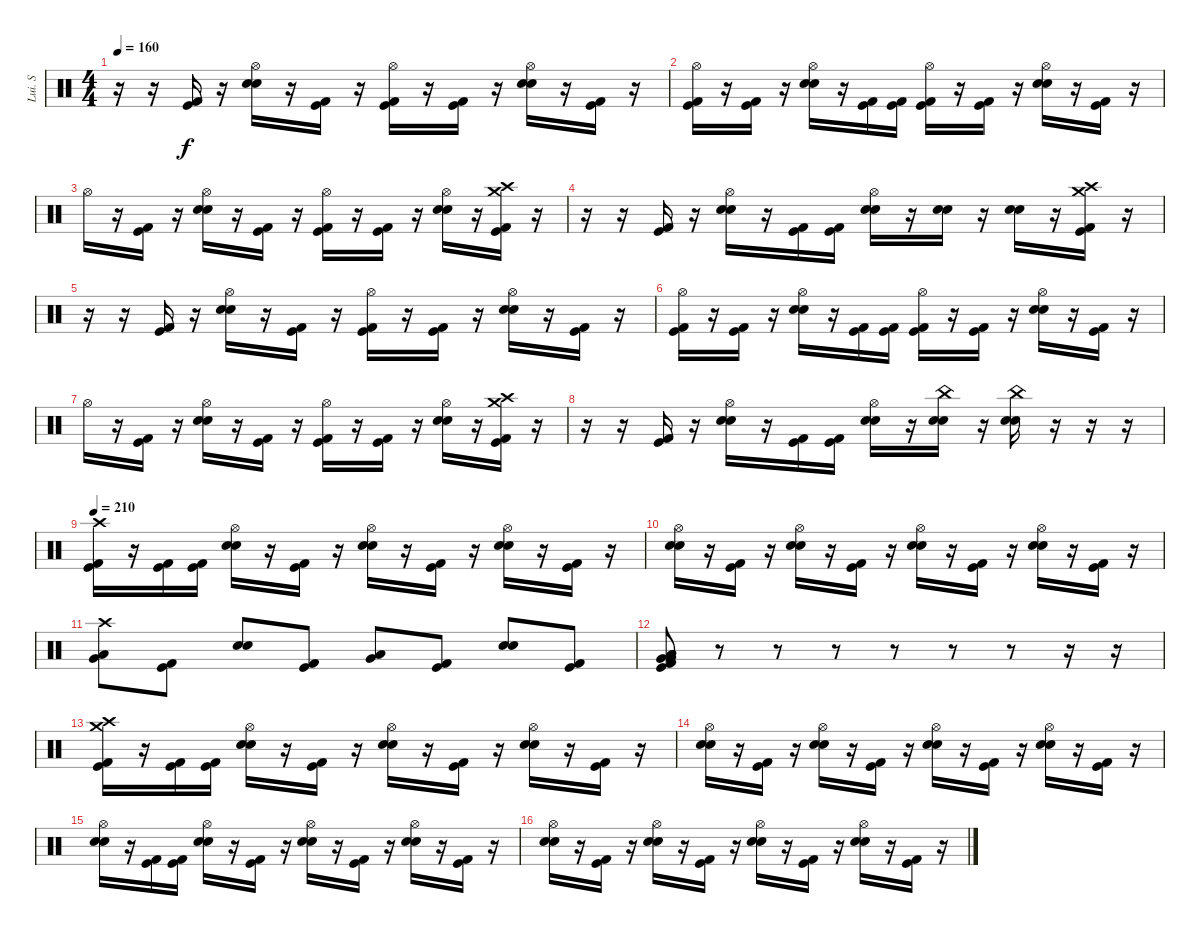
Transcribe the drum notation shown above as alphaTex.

\track ("Lui. S" "Lui. S") {instrument percussion}
\staff {score}
\articulation defaults
\ts (4 4)
\tempo 160
\clef neutral
\ks c
r.16{dy f} r.16 ("Kick (hit) 2" "Kick (hit)").16 r.16 ("Hi-Hat (open)" "Snare (hit) 2" "Electric Snare (hit)").16 r.16 ("Kick (hit) 2" "Kick (hit)").16 r.16 ("Hi-Hat (open)" "Kick (hit) 2" "Kick (hit)").16 r.16 ("Kick (hit) 2" "Kick (hit)").16 r.16 ("Hi-Hat (open)" "Electric Snare (hit)" "Snare (hit) 2").16 r.16 ("Kick (hit) 2" "Kick (hit)").16 r.16 |
("Hi-Hat (open)" "Kick (hit) 2" "Kick (hit)").16 r.16 ("Kick (hit) 2" "Kick (hit)").16 r.16 ("Hi-Hat (open)" "Snare (hit) 2" "Electric Snare (hit)").16 r.16 ("Kick (hit) 2" "Kick (hit)").16 ("Kick (hit) 2" "Kick (hit)").16 ("Hi-Hat (open)" "Kick (hit) 2" "Kick (hit)").16 r.16 ("Kick (hit) 2" "Kick (hit)").16 r.16 ("Hi-Hat (open)" "Electric Snare (hit)" "Snare (hit) 2").16 r.16 ("Kick (hit) 2" "Kick (hit)").16 r.16 |
"Hi-Hat (open)".16 r.16 ("Kick (hit) 2" "Kick (hit)").16 r.16 ("Hi-Hat (open)" "Snare (hit) 2" "Electric Snare (hit)").16 r.16 ("Kick (hit) 2" "Kick (hit)").16 r.16 ("Hi-Hat (open)" "Kick (hit) 2" "Kick (hit)").16 r.16 ("Kick (hit) 2" "Kick (hit)").16 r.16 ("Hi-Hat (open)" "Electric Snare (hit)" "Snare (hit) 2").16 r.16 ("Crash high (hit)" "Crash medium (hit)" "Kick (hit) 2" "Kick (hit)").16 r.16 |
r.16 r.16 ("Kick (hit) 2" "Kick (hit)").16 r.16 ("Hi-Hat (open)" "Snare (hit) 2" "Electric Snare (hit)").16 r.16 ("Kick (hit) 2" "Kick (hit)").16 ("Kick (hit) 2" "Kick (hit)").16 ("Hi-Hat (open)" "Snare (hit) 2" "Electric Snare (hit)").16 r.16 ("Snare (hit) 2" "Electric Snare (hit)").16 r.16 ("Snare (hit) 2" "Electric Snare (hit)").16 r.16 ("Crash high (hit)" "Crash medium (hit)" "Kick (hit) 2" "Kick (hit)").16 r.16 |
r.16 r.16 ("Kick (hit) 2" "Kick (hit)").16 r.16 ("Hi-Hat (open)" "Snare (hit) 2" "Electric Snare (hit)").16 r.16 ("Kick (hit) 2" "Kick (hit)").16 r.16 ("Hi-Hat (open)" "Kick (hit) 2" "Kick (hit)").16 r.16 ("Kick (hit) 2" "Kick (hit)").16 r.16 ("Hi-Hat (open)" "Electric Snare (hit)" "Snare (hit) 2").16 r.16 ("Kick (hit) 2" "Kick (hit)").16 r.16 |
("Hi-Hat (open)" "Kick (hit) 2" "Kick (hit)").16 r.16 ("Kick (hit) 2" "Kick (hit)").16 r.16 ("Hi-Hat (open)" "Snare (hit) 2" "Electric Snare (hit)").16 r.16 ("Kick (hit) 2" "Kick (hit)").16 ("Kick (hit) 2" "Kick (hit)").16 ("Hi-Hat (open)" "Kick (hit) 2" "Kick (hit)").16 r.16 ("Kick (hit) 2" "Kick (hit)").16 r.16 ("Hi-Hat (open)" "Electric Snare (hit)" "Snare (hit) 2").16 r.16 ("Kick (hit) 2" "Kick (hit)").16 r.16 |
"Hi-Hat (open)".16 r.16 ("Kick (hit) 2" "Kick (hit)").16 r.16 ("Hi-Hat (open)" "Snare (hit) 2" "Electric Snare (hit)").16 r.16 ("Kick (hit) 2" "Kick (hit)").16 r.16 ("Hi-Hat (open)" "Kick (hit) 2" "Kick (hit)").16 r.16 ("Kick (hit) 2" "Kick (hit)").16 r.16 ("Hi-Hat (open)" "Electric Snare (hit)" "Snare (hit) 2").16 r.16 ("Crash high (hit)" "Crash medium (hit)" "Kick (hit) 2" "Kick (hit)").16 r.16 |
r.16 r.16 ("Kick (hit) 2" "Kick (hit)").16 r.16 ("Hi-Hat (open)" "Snare (hit) 2" "Electric Snare (hit)").16 r.16 ("Kick (hit) 2" "Kick (hit)").16 ("Kick (hit) 2" "Kick (hit)").16 ("Hi-Hat (open)" "Snare (hit) 2" "Electric Snare (hit)").16 r.16 ("China (hit)" "Snare (hit) 2" "Electric Snare (hit)").16 r.16 ("China (hit)" "Snare (hit) 2" "Electric Snare (hit)").16 r.16 r.16 r.16 |
\tempo 210
("Crash high (hit)" "Kick (hit)" "Kick (hit) 2").16 r.16 ("Kick (hit) 2" "Kick (hit)").16 ("Kick (hit) 2" "Kick (hit)").16 ("Hi-Hat (open)" "Electric Snare (hit)" "Snare (hit) 2").16 r.16 ("Kick (hit) 2" "Kick (hit)").16 r.16 ("Hi-Hat (open)" "Electric Snare (hit)" "Snare (hit) 2").16 r.16 ("Kick (hit) 2" "Kick (hit)").16 r.16 ("Hi-Hat (open)" "Electric Snare (hit)" "Snare (hit) 2").16 r.16 ("Kick (hit) 2" "Kick (hit)").16 r.16 |
("Hi-Hat (open)" "Electric Snare (hit)" "Snare (hit) 2").16 r.16 ("Kick (hit) 2" "Kick (hit)").16 r.16 ("Hi-Hat (open)" "Electric Snare (hit)" "Snare (hit) 2").16 r.16 ("Kick (hit) 2" "Kick (hit)").16 r.16 ("Hi-Hat (open)" "Electric Snare (hit)" "Snare (hit) 2").16 r.16 ("Kick (hit) 2" "Kick (hit)").16 r.16 ("Hi-Hat (open)" "Snare (hit) 2" "Electric Snare (hit)").16 r.16 ("Kick (hit) 2" "Kick (hit)").16 r.16 |
("Crash high (hit)" "Low Tom (hit)" "Very Low Tom (hit)").8 ("Kick (hit) 2" "Kick (hit)").8 ("Snare (hit) 2" "Electric Snare (hit)").8 ("Kick (hit) 2" "Kick (hit)").8 ("Low Tom (hit)" "Very Low Tom (hit)").8 ("Kick (hit) 2" "Kick (hit)").8 ("Snare (hit) 2" "Electric Snare (hit)").8 ("Kick (hit) 2" "Kick (hit)").8 |
("Very Low Tom (hit)" "Very Low Tom (hit)" "Low Floor Tom (hit)" "Low Floor Tom (hit)" "Kick (hit)" "Kick (hit) 2").8 r.8 r.8 r.8 r.8 r.8 r.8 r.16 r.16 |
("Crash high (hit)" "Crash medium (hit)" "Kick (hit)" "Kick (hit) 2").16 r.16 ("Kick (hit) 2" "Kick (hit)").16 ("Kick (hit) 2" "Kick (hit)").16 ("Hi-Hat (open)" "Electric Snare (hit)" "Snare (hit) 2").16 r.16 ("Kick (hit) 2" "Kick (hit)").16 r.16 ("Hi-Hat (open)" "Electric Snare (hit)" "Snare (hit) 2").16 r.16 ("Kick (hit) 2" "Kick (hit)").16 r.16 ("Hi-Hat (open)" "Electric Snare (hit)" "Snare (hit) 2").16 r.16 ("Kick (hit) 2" "Kick (hit)").16 r.16 |
("Hi-Hat (open)" "Electric Snare (hit)" "Snare (hit) 2").16 r.16 ("Kick (hit) 2" "Kick (hit)").16 r.16 ("Hi-Hat (open)" "Electric Snare (hit)" "Snare (hit) 2").16 r.16 ("Kick (hit) 2" "Kick (hit)").16 r.16 ("Hi-Hat (open)" "Electric Snare (hit)" "Snare (hit) 2").16 r.16 ("Kick (hit) 2" "Kick (hit)").16 r.16 ("Hi-Hat (open)" "Snare (hit) 2" "Electric Snare (hit)").16 r.16 ("Kick (hit) 2" "Kick (hit)").16 r.16 |
("Hi-Hat (open)" "Electric Snare (hit)" "Snare (hit) 2").16 r.16 ("Kick (hit) 2" "Kick (hit)").16 ("Kick (hit) 2" "Kick (hit)").16 ("Hi-Hat (open)" "Electric Snare (hit)" "Snare (hit) 2").16 r.16 ("Kick (hit) 2" "Kick (hit)").16 r.16 ("Hi-Hat (open)" "Electric Snare (hit)" "Snare (hit) 2").16 r.16 ("Kick (hit) 2" "Kick (hit)").16 r.16 ("Hi-Hat (open)" "Snare (hit) 2" "Electric Snare (hit)").16 r.16 ("Kick (hit) 2" "Kick (hit)").16 r.16 |
("Hi-Hat (open)" "Electric Snare (hit)" "Snare (hit) 2").16 r.16 ("Kick (hit) 2" "Kick (hit)").16 r.16 ("Hi-Hat (open)" "Electric Snare (hit)" "Snare (hit) 2").16 r.16 ("Kick (hit) 2" "Kick (hit)").16 r.16 ("Hi-Hat (open)" "Electric Snare (hit)" "Snare (hit) 2").16 r.16 ("Kick (hit) 2" "Kick (hit)").16 r.16 ("Hi-Hat (open)" "Snare (hit) 2" "Electric Snare (hit)").16 r.16 ("Kick (hit) 2" "Kick (hit)").16 r.16
